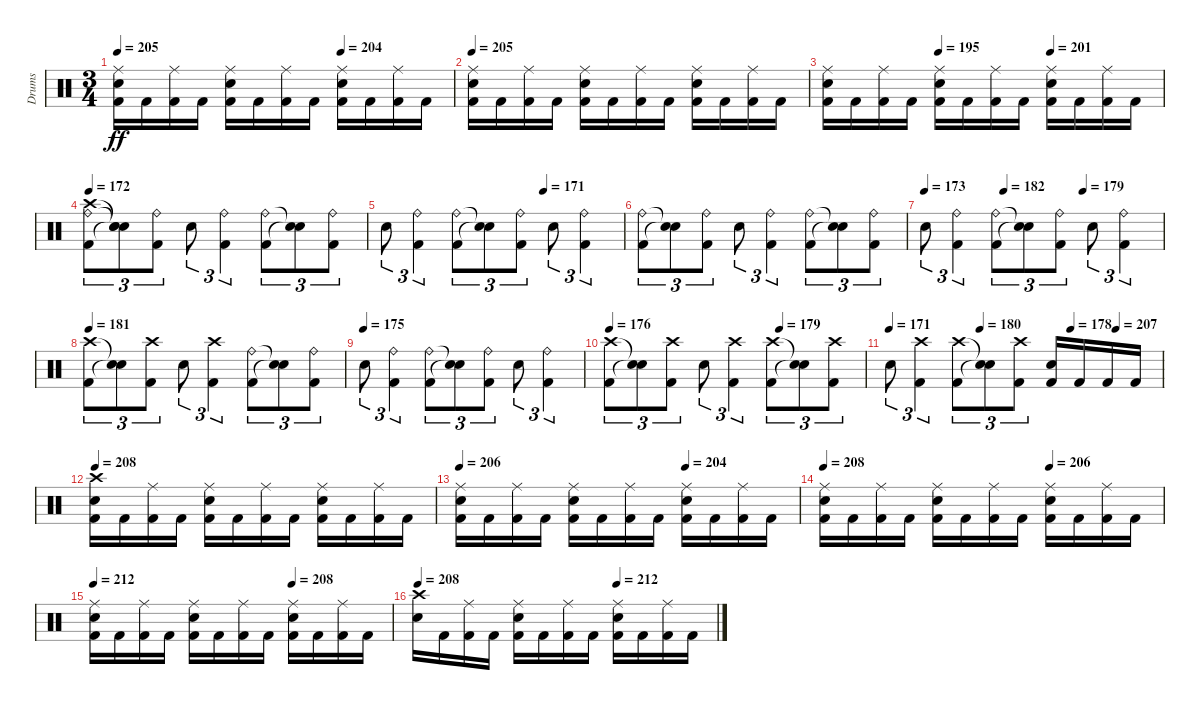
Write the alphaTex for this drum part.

\track ("Drums" "Drums") {instrument percussion}
\staff {score}
\articulation defaults
\ts (3 4)
\tempo 205
\tempo (204 0.6666666666666666)
\clef neutral
\ks c
("Kick (hit) 2" "Snare (hit) 2" "Ride (middle)").16{dy ff} "Kick (hit) 2".16 ("Kick (hit) 2" "Ride (middle)").16 "Kick (hit) 2".16 ("Kick (hit) 2" "Snare (hit) 2" "Ride (middle)").16 "Kick (hit) 2".16 ("Kick (hit) 2" "Ride (middle)").16 "Kick (hit) 2".16 ("Kick (hit) 2" "Snare (hit) 2" "Ride (middle)").16 "Kick (hit) 2".16 ("Kick (hit) 2" "Ride (middle)").16 "Kick (hit) 2".16 |
\tempo 205
("Kick (hit) 2" "Snare (hit) 2" "Ride (middle)").16 "Kick (hit) 2".16 ("Kick (hit) 2" "Ride (middle)").16 "Kick (hit) 2".16 ("Kick (hit) 2" "Snare (hit) 2" "Ride (middle)").16 "Kick (hit) 2".16 ("Kick (hit) 2" "Ride (middle)").16 "Kick (hit) 2".16 ("Kick (hit) 2" "Snare (hit) 2" "Ride (middle)").16 "Kick (hit) 2".16 ("Kick (hit) 2" "Ride (middle)").16 "Kick (hit) 2".16 |
\tempo (195 0.3333333333333333)
\tempo (201 0.6666666666666666)
("Kick (hit) 2" "Snare (hit) 2" "Ride (middle)").16 "Kick (hit) 2".16 ("Kick (hit) 2" "Ride (middle)").16 "Kick (hit) 2".16 ("Kick (hit) 2" "Snare (hit) 2" "Ride (middle)").16 "Kick (hit) 2".16 ("Kick (hit) 2" "Ride (middle)").16 "Kick (hit) 2".16 ("Kick (hit) 2" "Snare (hit) 2" "Ride (middle)").16 "Kick (hit) 2".16 ("Kick (hit) 2" "Ride (middle)").16 "Kick (hit) 2".16 |
\tempo 172
("Kick (hit) 2" "Ride (bell)" "Crash high (hit)").8{tu (3 2)} ("Snare (hit)"{t} "Snare (hit)"{t} "Snare (hit)"{t}).8{tu (3 2)} ("Kick (hit) 2" "Ride (bell)").8{tu (3 2)} "Snare (hit) 2".8{tu (3 2)} ("Kick (hit) 2" "Ride (bell)").4{tu (3 2)} ("Kick (hit) 2" "Ride (bell)").8{tu (3 2)} ("Snare (hit)"{t} "Snare (hit)"{t}).8{tu (3 2)} ("Kick (hit) 2" "Ride (bell)").8{tu (3 2)} |
\tempo (171 0.6666666666666666)
"Snare (hit) 2".8{tu (3 2)} ("Kick (hit) 2" "Ride (bell)").4{tu (3 2)} ("Kick (hit) 2" "Ride (bell)").8{tu (3 2)} ("Snare (hit)"{t} "Snare (hit)"{t}).8{tu (3 2)} ("Kick (hit) 2" "Ride (bell)").8{tu (3 2)} "Snare (hit) 2".8{tu (3 2)} ("Kick (hit) 2" "Ride (bell)").4{tu (3 2)} |
("Kick (hit) 2" "Ride (bell)").8{tu (3 2)} ("Snare (hit)"{t} "Snare (hit)"{t}).8{tu (3 2)} ("Kick (hit) 2" "Ride (bell)").8{tu (3 2)} "Snare (hit) 2".8{tu (3 2)} ("Kick (hit) 2" "Ride (bell)").4{tu (3 2)} ("Kick (hit) 2" "Ride (bell)").8{tu (3 2)} ("Snare (hit)"{t} "Snare (hit)"{t}).8{tu (3 2)} ("Kick (hit) 2" "Ride (bell)").8{tu (3 2)} |
\tempo 173
\tempo (182 0.3333333333333333)
\tempo (179 0.6666666666666666)
"Snare (hit) 2".8{tu (3 2)} ("Kick (hit) 2" "Ride (bell)").4{tu (3 2)} ("Kick (hit) 2" "Ride (bell)").8{tu (3 2)} ("Snare (hit)"{t} "Snare (hit)"{t}).8{tu (3 2)} ("Kick (hit) 2" "Ride (bell)").8{tu (3 2)} "Snare (hit) 2".8{tu (3 2)} ("Kick (hit) 2" "Ride (bell)").4{tu (3 2)} |
\tempo 181
("Kick (hit) 2" "Crash high (hit)").8{tu (3 2)} ("Snare (hit)"{t} "Snare (hit)"{t}).8{tu (3 2)} ("Kick (hit) 2" "Crash high (hit)").8{tu (3 2)} "Snare (hit) 2".8{tu (3 2)} ("Kick (hit) 2" "Crash high (hit)").4{tu (3 2)} ("Kick (hit) 2" "Ride (bell)").8{tu (3 2)} ("Snare (hit)"{t} "Snare (hit)"{t}).8{tu (3 2)} ("Kick (hit) 2" "Ride (bell)").8{tu (3 2)} |
\tempo (175)
"Snare (hit) 2".8{tu (3 2)} ("Kick (hit) 2" "Ride (bell)").4{tu (3 2)} ("Kick (hit) 2" "Ride (bell)").8{tu (3 2)} ("Snare (hit)"{t} "Snare (hit)"{t}).8{tu (3 2)} ("Kick (hit) 2" "Ride (bell)").8{tu (3 2)} "Snare (hit) 2".8{tu (3 2)} ("Kick (hit) 2" "Ride (bell)").4{tu (3 2)} |
\tempo 176
\tempo (179 0.6666666666666666)
("Kick (hit) 2" "Crash high (hit)").8{tu (3 2)} ("Snare (hit)"{t} "Snare (hit)"{t}).8{tu (3 2)} ("Kick (hit) 2" "Crash high (hit)").8{tu (3 2)} "Snare (hit) 2".8{tu (3 2)} ("Kick (hit) 2" "Crash high (hit)").4{tu (3 2)} ("Kick (hit) 2" "Crash high (hit)").8{tu (3 2)} ("Snare (hit)"{t} "Snare (hit)"{t}).8{tu (3 2)} ("Kick (hit) 2" "Crash high (hit)").8{tu (3 2)} |
\tempo 171
\tempo (180 0.3333333333333333)
\tempo (178 0.6666666666666666)
\tempo (207 0.8333333333333334)
"Snare (hit) 2".8{tu (3 2)} ("Kick (hit) 2" "Crash high (hit)").4{tu (3 2)} ("Kick (hit) 2" "Crash high (hit)").8{tu (3 2)} ("Snare (hit)"{t} "Snare (hit)"{t}).8{tu (3 2)} ("Kick (hit) 2" "Crash high (hit)").8{tu (3 2)} ("Kick (hit) 2" "Snare (hit) 2").16 "Kick (hit) 2".16 "Kick (hit) 2".16 "Kick (hit) 2".16 |
\tempo 208
("Kick (hit) 2" "Snare (hit) 2" "Crash high (hit)").16 "Kick (hit) 2".16 ("Kick (hit) 2" "Ride (middle)").16 "Kick (hit) 2".16 ("Kick (hit) 2" "Snare (hit) 2" "Ride (middle)").16 "Kick (hit) 2".16 ("Kick (hit) 2" "Ride (middle)").16 "Kick (hit) 2".16 ("Kick (hit) 2" "Snare (hit) 2" "Ride (middle)").16 "Kick (hit) 2".16 ("Kick (hit) 2" "Ride (middle)").16 "Kick (hit) 2".16 |
\tempo 206
\tempo (204 0.6666666666666666)
("Kick (hit) 2" "Snare (hit) 2" "Ride (middle)").16 "Kick (hit) 2".16 ("Kick (hit) 2" "Ride (middle)").16 "Kick (hit) 2".16 ("Kick (hit) 2" "Snare (hit) 2" "Ride (middle)").16 "Kick (hit) 2".16 ("Kick (hit) 2" "Ride (middle)").16 "Kick (hit) 2".16 ("Kick (hit) 2" "Snare (hit) 2" "Ride (middle)").16 "Kick (hit) 2".16 ("Kick (hit) 2" "Ride (middle)").16 "Kick (hit) 2".16 |
\tempo 208
\tempo (206 0.6666666666666666)
("Kick (hit) 2" "Snare (hit) 2" "Ride (middle)").16 "Kick (hit) 2".16 ("Kick (hit) 2" "Ride (middle)").16 "Kick (hit) 2".16 ("Kick (hit) 2" "Snare (hit) 2" "Ride (middle)").16 "Kick (hit) 2".16 ("Kick (hit) 2" "Ride (middle)").16 "Kick (hit) 2".16 ("Kick (hit) 2" "Snare (hit) 2" "Ride (middle)").16 "Kick (hit) 2".16 ("Kick (hit) 2" "Ride (middle)").16 "Kick (hit) 2".16 |
\tempo 212
\tempo (208 0.6666666666666666)
("Kick (hit) 2" "Snare (hit) 2" "Ride (middle)").16 "Kick (hit) 2".16 ("Kick (hit) 2" "Ride (middle)").16 "Kick (hit) 2".16 ("Kick (hit) 2" "Snare (hit) 2" "Ride (middle)").16 "Kick (hit) 2".16 ("Kick (hit) 2" "Ride (middle)").16 "Kick (hit) 2".16 ("Kick (hit) 2" "Snare (hit) 2" "Ride (middle)").16 "Kick (hit) 2".16 ("Kick (hit) 2" "Ride (middle)").16 "Kick (hit) 2".16 |
\tempo 208
\tempo (212 0.6666666666666666)
("Snare (hit) 2" "Crash high (hit)").16 "Kick (hit) 2".16 ("Kick (hit) 2" "Ride (middle)").16 "Kick (hit) 2".16 ("Kick (hit) 2" "Snare (hit) 2" "Ride (middle)").16 "Kick (hit) 2".16 ("Kick (hit) 2" "Ride (middle)").16 "Kick (hit) 2".16 ("Kick (hit) 2" "Snare (hit) 2" "Ride (middle)").16 "Kick (hit) 2".16 ("Kick (hit) 2" "Ride (middle)").16 "Kick (hit) 2".16
